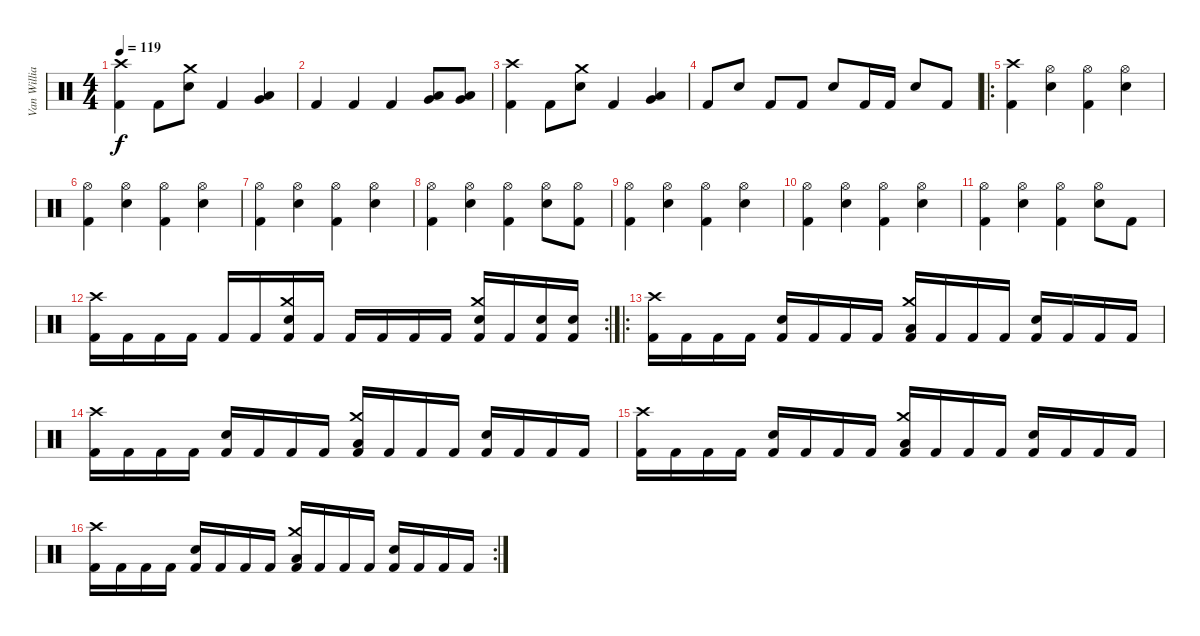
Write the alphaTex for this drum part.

\track ("Van Williams" "Van Willia") {instrument percussion}
\staff {score}
\articulation defaults
\ts (4 4)
\tempo 119
\clef neutral
\ks c
("Crash high (hit)" "Kick (hit) 2").4{dy f} "Kick (hit) 2".8 ("Crash medium (hit)" "Electric Snare (hit)").8 "Kick (hit) 2".4 ("Very Low Tom (hit)" "Low Floor Tom (hit)").4 |
"Kick (hit) 2".4 "Kick (hit) 2".4 "Kick (hit) 2".4 ("Very Low Tom (hit)" "Low Floor Tom (hit)").8 ("Very Low Tom (hit)" "Low Floor Tom (hit)").8 |
("Crash high (hit)" "Kick (hit) 2").4 "Kick (hit) 2".8 ("Crash medium (hit)" "Electric Snare (hit)").8 "Kick (hit) 2".4 ("Very Low Tom (hit)" "Low Floor Tom (hit)").4 |
"Kick (hit) 2".8 "Electric Snare (hit)".8 "Kick (hit) 2".8 "Kick (hit) 2".8 "Electric Snare (hit)".8 "Kick (hit) 2".16 "Kick (hit) 2".16 "Electric Snare (hit)".8 "Kick (hit) 2".8 |
\ro
("Crash high (hit)" "Kick (hit) 2").4 ("Hi-Hat (open)" "Electric Snare (hit)").4 ("Hi-Hat (open)" "Kick (hit) 2").4 ("Hi-Hat (open)" "Electric Snare (hit)").4 |
("Hi-Hat (open)" "Kick (hit) 2").4 ("Hi-Hat (open)" "Electric Snare (hit)").4 ("Hi-Hat (open)" "Kick (hit) 2").4 ("Hi-Hat (open)" "Electric Snare (hit)").4 |
("Hi-Hat (open)" "Kick (hit) 2").4 ("Hi-Hat (open)" "Electric Snare (hit)").4 ("Hi-Hat (open)" "Kick (hit) 2").4 ("Hi-Hat (open)" "Electric Snare (hit)").4 |
("Hi-Hat (open)" "Kick (hit) 2").4 ("Hi-Hat (open)" "Electric Snare (hit)").4 ("Hi-Hat (open)" "Kick (hit) 2").4 ("Hi-Hat (open)" "Electric Snare (hit)").8 ("Hi-Hat (open)" "Kick (hit) 2").8 |
("Hi-Hat (open)" "Kick (hit) 2").4 ("Hi-Hat (open)" "Electric Snare (hit)").4 ("Hi-Hat (open)" "Kick (hit) 2").4 ("Hi-Hat (open)" "Electric Snare (hit)").4 |
("Hi-Hat (open)" "Kick (hit) 2").4 ("Hi-Hat (open)" "Electric Snare (hit)").4 ("Hi-Hat (open)" "Kick (hit) 2").4 ("Hi-Hat (open)" "Electric Snare (hit)").4 |
("Hi-Hat (open)" "Kick (hit) 2").4 ("Hi-Hat (open)" "Electric Snare (hit)").4 ("Hi-Hat (open)" "Kick (hit) 2").4 ("Hi-Hat (open)" "Electric Snare (hit)").8 "Kick (hit) 2".8 |
\rc 2
("Crash high (hit)" "Kick (hit) 2").16 "Kick (hit) 2".16 "Kick (hit) 2".16 "Kick (hit) 2".16 "Kick (hit) 2".16 "Kick (hit) 2".16 ("Crash medium (hit)" "Electric Snare (hit)" "Kick (hit) 2").16 "Kick (hit) 2".16 "Kick (hit) 2".16 "Kick (hit) 2".16 "Kick (hit) 2".16 "Kick (hit) 2".16 ("Crash medium (hit)" "Electric Snare (hit)" "Kick (hit) 2").16 "Kick (hit) 2".16 ("Electric Snare (hit)" "Kick (hit) 2").16 ("Electric Snare (hit)" "Kick (hit) 2").16 |
\ro
("Crash high (hit)" "Kick (hit) 2").16 "Kick (hit) 2".16 "Kick (hit) 2".16 "Kick (hit) 2".16 ("Electric Snare (hit)" "Kick (hit) 2").16 "Kick (hit) 2".16 "Kick (hit) 2".16 "Kick (hit) 2".16 ("Crash medium (hit)" "Low Floor Tom (hit)" "Kick (hit) 2").16 "Kick (hit) 2".16 "Kick (hit) 2".16 "Kick (hit) 2".16 ("Electric Snare (hit)" "Kick (hit) 2").16 "Kick (hit) 2".16 "Kick (hit) 2".16 "Kick (hit) 2".16 |
("Crash high (hit)" "Kick (hit) 2").16 "Kick (hit) 2".16 "Kick (hit) 2".16 "Kick (hit) 2".16 ("Electric Snare (hit)" "Kick (hit) 2").16 "Kick (hit) 2".16 "Kick (hit) 2".16 "Kick (hit) 2".16 ("Crash medium (hit)" "Low Floor Tom (hit)" "Kick (hit) 2").16 "Kick (hit) 2".16 "Kick (hit) 2".16 "Kick (hit) 2".16 ("Electric Snare (hit)" "Kick (hit) 2").16 "Kick (hit) 2".16 "Kick (hit) 2".16 "Kick (hit) 2".16 |
("Crash high (hit)" "Kick (hit) 2").16 "Kick (hit) 2".16 "Kick (hit) 2".16 "Kick (hit) 2".16 ("Electric Snare (hit)" "Kick (hit) 2").16 "Kick (hit) 2".16 "Kick (hit) 2".16 "Kick (hit) 2".16 ("Crash medium (hit)" "Low Floor Tom (hit)" "Kick (hit) 2").16 "Kick (hit) 2".16 "Kick (hit) 2".16 "Kick (hit) 2".16 ("Electric Snare (hit)" "Kick (hit) 2").16 "Kick (hit) 2".16 "Kick (hit) 2".16 "Kick (hit) 2".16 |
\rc 2
("Crash high (hit)" "Kick (hit) 2").16 "Kick (hit) 2".16 "Kick (hit) 2".16 "Kick (hit) 2".16 ("Electric Snare (hit)" "Kick (hit) 2").16 "Kick (hit) 2".16 "Kick (hit) 2".16 "Kick (hit) 2".16 ("Crash medium (hit)" "Low Floor Tom (hit)" "Kick (hit) 2").16 "Kick (hit) 2".16 "Kick (hit) 2".16 "Kick (hit) 2".16 ("Electric Snare (hit)" "Kick (hit) 2").16 "Kick (hit) 2".16 "Kick (hit) 2".16 "Kick (hit) 2".16
